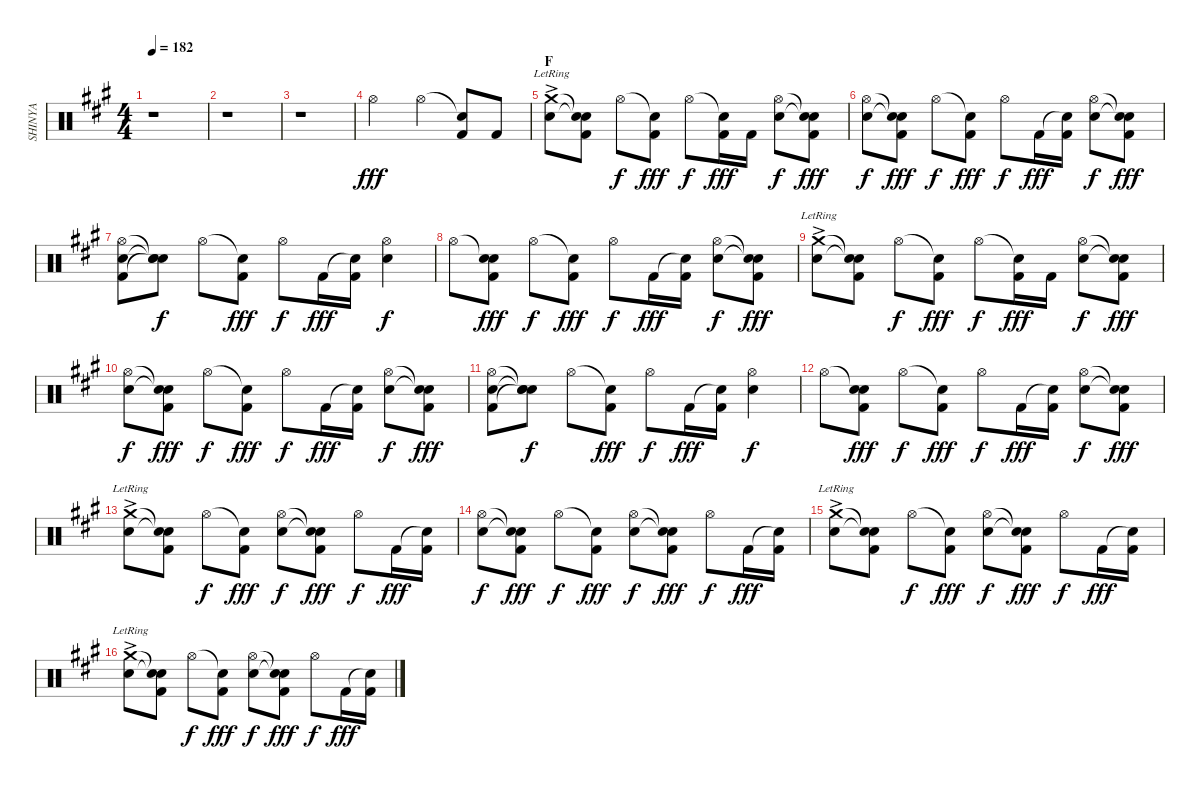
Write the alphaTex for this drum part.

\track ("SHINYA" "SHINYA") {instrument percussion}
\staff {score}
\articulation defaults
\ts (4 4)
\tempo 182
\clef neutral
\ks a
r.1{dy f} |
r.1 |
r.1 |
"Hi-Hat (open)".2{dy fff} "Hi-Hat (open)".4 ("Snare (hit)"{t} "Kick (hit) 2").8 "Kick (hit) 2".8 |
\section ("" "F")
("Crash medium (hit)"{ac lr} "Electric Snare (hit)").8 ("Snare (hit)"{t} "Snare (hit)"{t} "Kick (hit) 2").8 "Hi-Hat (open)".8{dy f} ("Snare (hit)"{t} "Kick (hit) 2").8{dy fff} "Hi-Hat (open)".8{dy f} ("Snare (hit)"{t} "Kick (hit) 2").16{dy fff} "Kick (hit) 2".16 ("Hi-Hat (open)" "Electric Snare (hit)").8{dy f} ("Snare (hit)"{t} "Snare (hit)"{t} "Kick (hit) 2").8{dy fff} |
("Hi-Hat (open)" "Electric Snare (hit)").8{dy f} ("Snare (hit)"{t} "Snare (hit)"{t} "Kick (hit) 2").8{dy fff} "Hi-Hat (open)".8{dy f} ("Snare (hit)"{t} "Kick (hit) 2").8{dy fff} "Hi-Hat (open)".8{dy f} "Kick (hit) 2".16{dy fff} ("Snare (hit)"{t} "Kick (hit) 2").16 ("Hi-Hat (open)" "Electric Snare (hit)").8{dy f} ("Snare (hit)"{t} "Snare (hit)"{t} "Kick (hit) 2").8{dy fff} |
("Hi-Hat (open)" "Electric Snare (hit)" "Kick (hit) 2").8 ("Snare (hit)"{t} "Electric Snare (hit)"{t} "Snare (hit)"{t}).8{dy f} "Hi-Hat (open)".8 ("Snare (hit)"{t} "Kick (hit) 2").8{dy fff} "Hi-Hat (open)".8{dy f} "Kick (hit) 2".16{dy fff} ("Snare (hit)"{t} "Kick (hit) 2").16 ("Hi-Hat (open)" "Electric Snare (hit)").4{dy f} |
"Hi-Hat (open)".8 ("Snare (hit)"{t} "Electric Snare (hit)" "Kick (hit) 2").8{dy fff} "Hi-Hat (open)".8{dy f} ("Snare (hit)"{t} "Kick (hit) 2").8{dy fff} "Hi-Hat (open)".8{dy f} "Kick (hit) 2".16{dy fff} ("Snare (hit)"{t} "Kick (hit) 2").16 ("Hi-Hat (open)" "Electric Snare (hit)").8{dy f} ("Snare (hit)"{t} "Snare (hit)"{t} "Kick (hit) 2").8{dy fff} |
("Crash medium (hit)"{ac lr} "Electric Snare (hit)").8 ("Snare (hit)"{t} "Snare (hit)"{t} "Kick (hit) 2").8 "Hi-Hat (open)".8{dy f} ("Snare (hit)"{t} "Kick (hit) 2").8{dy fff} "Hi-Hat (open)".8{dy f} ("Snare (hit)"{t} "Kick (hit) 2").16{dy fff} "Kick (hit) 2".16 ("Hi-Hat (open)" "Electric Snare (hit)").8{dy f} ("Snare (hit)"{t} "Snare (hit)"{t} "Kick (hit) 2").8{dy fff} |
("Hi-Hat (open)" "Electric Snare (hit)").8{dy f} ("Snare (hit)"{t} "Snare (hit)"{t} "Kick (hit) 2").8{dy fff} "Hi-Hat (open)".8{dy f} ("Snare (hit)"{t} "Kick (hit) 2").8{dy fff} "Hi-Hat (open)".8{dy f} "Kick (hit) 2".16{dy fff} ("Snare (hit)"{t} "Kick (hit) 2").16 ("Hi-Hat (open)" "Electric Snare (hit)").8{dy f} ("Snare (hit)"{t} "Snare (hit)"{t} "Kick (hit) 2").8{dy fff} |
("Hi-Hat (open)" "Electric Snare (hit)" "Kick (hit) 2").8 ("Snare (hit)"{t} "Electric Snare (hit)"{t} "Snare (hit)"{t}).8{dy f} "Hi-Hat (open)".8 ("Snare (hit)"{t} "Kick (hit) 2").8{dy fff} "Hi-Hat (open)".8{dy f} "Kick (hit) 2".16{dy fff} ("Snare (hit)"{t} "Kick (hit) 2").16 ("Hi-Hat (open)" "Electric Snare (hit)").4{dy f} |
"Hi-Hat (open)".8 ("Snare (hit)"{t} "Electric Snare (hit)" "Kick (hit) 2").8{dy fff} "Hi-Hat (open)".8{dy f} ("Snare (hit)"{t} "Kick (hit) 2").8{dy fff} "Hi-Hat (open)".8{dy f} "Kick (hit) 2".16{dy fff} ("Snare (hit)"{t} "Kick (hit) 2").16 ("Hi-Hat (open)" "Electric Snare (hit)").8{dy f} ("Snare (hit)"{t} "Snare (hit)"{t} "Kick (hit) 2").8{dy fff} |
("Crash medium (hit)"{ac lr} "Electric Snare (hit)").8 ("Snare (hit)"{t} "Snare (hit)"{t} "Kick (hit) 2").8 "Hi-Hat (open)".8{dy f} ("Snare (hit)"{t} "Kick (hit) 2").8{dy fff} ("Hi-Hat (open)" "Electric Snare (hit)").8{dy f} ("Snare (hit)"{t} "Snare (hit)"{t} "Kick (hit) 2").8{dy fff} "Hi-Hat (open)".8{dy f} "Kick (hit) 2".16{dy fff} ("Snare (hit)"{t} "Kick (hit) 2").16 |
("Hi-Hat (open)" "Electric Snare (hit)").8{dy f} ("Snare (hit)"{t} "Snare (hit)"{t} "Kick (hit) 2").8{dy fff} "Hi-Hat (open)".8{dy f} ("Snare (hit)"{t} "Kick (hit) 2").8{dy fff} ("Hi-Hat (open)" "Electric Snare (hit)").8{dy f} ("Snare (hit)"{t} "Snare (hit)"{t} "Kick (hit) 2").8{dy fff} "Hi-Hat (open)".8{dy f} "Kick (hit) 2".16{dy fff} ("Snare (hit)"{t} "Kick (hit) 2").16 |
("Crash medium (hit)"{ac lr} "Electric Snare (hit)").8 ("Snare (hit)"{t} "Snare (hit)"{t} "Kick (hit) 2").8 "Hi-Hat (open)".8{dy f} ("Snare (hit)"{t} "Kick (hit) 2").8{dy fff} ("Hi-Hat (open)" "Electric Snare (hit)").8{dy f} ("Snare (hit)"{t} "Snare (hit)"{t} "Kick (hit) 2").8{dy fff} "Hi-Hat (open)".8{dy f} "Kick (hit) 2".16{dy fff} ("Snare (hit)"{t} "Kick (hit) 2").16 |
("Crash medium (hit)"{ac lr} "Electric Snare (hit)").8 ("Snare (hit)"{t} "Snare (hit)"{t} "Kick (hit) 2").8 "Hi-Hat (open)".8{dy f} ("Snare (hit)"{t} "Kick (hit) 2").8{dy fff} ("Hi-Hat (open)" "Electric Snare (hit)").8{dy f} ("Snare (hit)"{t} "Snare (hit)"{t} "Kick (hit) 2").8{dy fff} "Hi-Hat (open)".8{dy f} "Kick (hit) 2".16{dy fff} ("Snare (hit)"{t} "Kick (hit) 2").16
